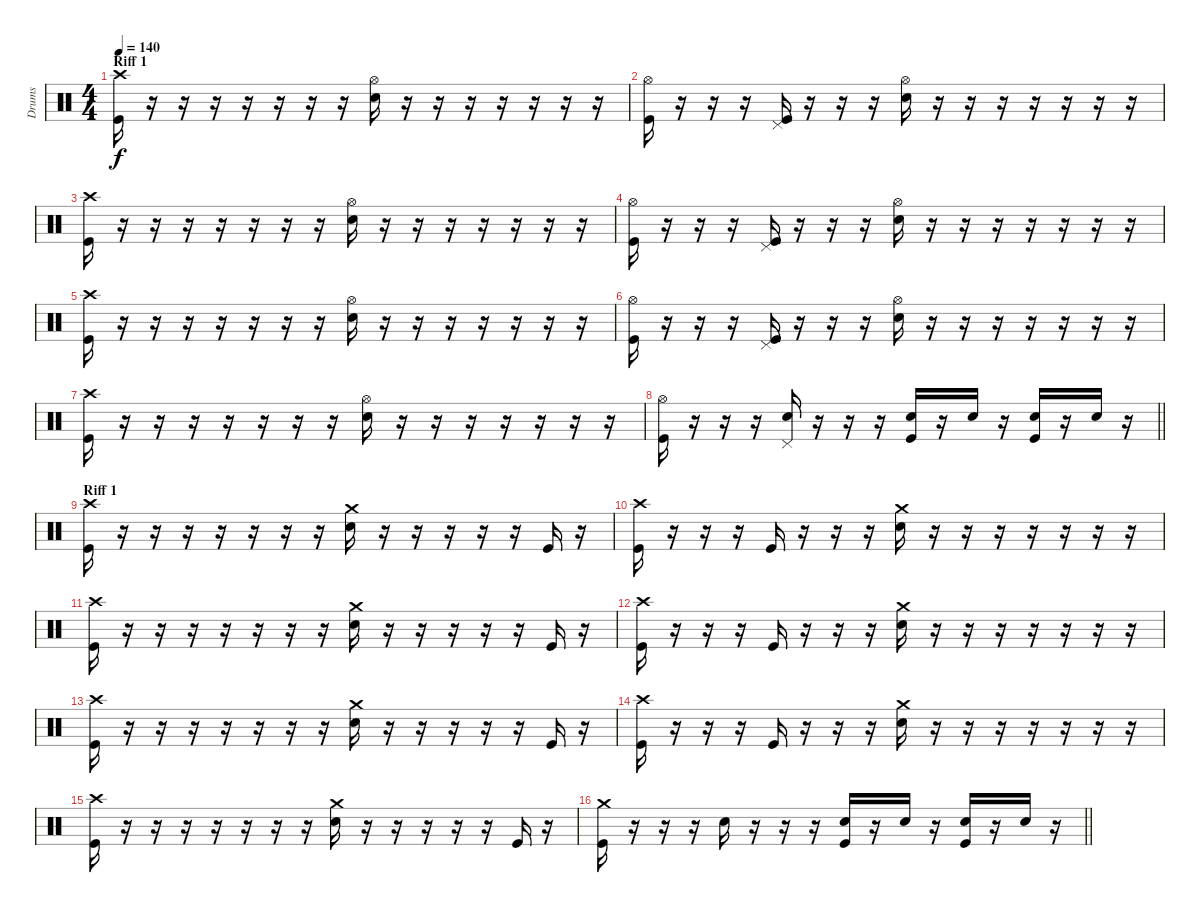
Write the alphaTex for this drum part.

\track ("Drums" "Drums") {instrument percussion}
\staff {score}
\articulation defaults
\ts (4 4)
\section ("" "Riff 1")
\tempo 140
\clef neutral
\ks c
("Crash high (hit)" "Kick (hit)").16{dy f} r.16 r.16 r.16 r.16 r.16 r.16 r.16 ("Hi-Hat (open)" "Electric Snare (hit)").16 r.16 r.16 r.16 r.16 r.16 r.16 r.16 |
("Hi-Hat (open)" "Kick (hit)").16 r.16 r.16 r.16 ("Pedal Hi-Hat (hit)" "Kick (hit)").16 r.16 r.16 r.16 ("Hi-Hat (open)" "Electric Snare (hit)").16 r.16 r.16 r.16 r.16 r.16 r.16 r.16 |
("Crash high (hit)" "Kick (hit)").16 r.16 r.16 r.16 r.16 r.16 r.16 r.16 ("Hi-Hat (open)" "Electric Snare (hit)").16 r.16 r.16 r.16 r.16 r.16 r.16 r.16 |
("Hi-Hat (open)" "Kick (hit)").16 r.16 r.16 r.16 ("Pedal Hi-Hat (hit)" "Kick (hit)").16 r.16 r.16 r.16 ("Hi-Hat (open)" "Electric Snare (hit)").16 r.16 r.16 r.16 r.16 r.16 r.16 r.16 |
("Crash high (hit)" "Kick (hit)").16 r.16 r.16 r.16 r.16 r.16 r.16 r.16 ("Hi-Hat (open)" "Electric Snare (hit)").16 r.16 r.16 r.16 r.16 r.16 r.16 r.16 |
("Hi-Hat (open)" "Kick (hit)").16 r.16 r.16 r.16 ("Pedal Hi-Hat (hit)" "Kick (hit)").16 r.16 r.16 r.16 ("Hi-Hat (open)" "Electric Snare (hit)").16 r.16 r.16 r.16 r.16 r.16 r.16 r.16 |
("Crash high (hit)" "Kick (hit)").16 r.16 r.16 r.16 r.16 r.16 r.16 r.16 ("Hi-Hat (open)" "Electric Snare (hit)").16 r.16 r.16 r.16 r.16 r.16 r.16 r.16 |
\barLineRight lightlight
("Hi-Hat (open)" "Kick (hit)").16 r.16 r.16 r.16 ("Pedal Hi-Hat (hit)" "Electric Snare (hit)").16 r.16 r.16 r.16 ("Electric Snare (hit)" "Kick (hit)").16 r.16 "Electric Snare (hit)".16 r.16 ("Electric Snare (hit)" "Kick (hit)").16 r.16 "Electric Snare (hit)".16 r.16 |
\section ("" "Riff 1")
("Crash high (hit)" "Kick (hit)").16 r.16 r.16 r.16 r.16 r.16 r.16 r.16 ("Crash medium (hit)" "Electric Snare (hit)").16 r.16 r.16 r.16 r.16 r.16 "Kick (hit)".16 r.16 |
("Crash high (hit)" "Kick (hit)").16 r.16 r.16 r.16 "Kick (hit)".16 r.16 r.16 r.16 ("Crash medium (hit)" "Electric Snare (hit)").16 r.16 r.16 r.16 r.16 r.16 r.16 r.16 |
("Crash high (hit)" "Kick (hit)").16 r.16 r.16 r.16 r.16 r.16 r.16 r.16 ("Crash medium (hit)" "Electric Snare (hit)").16 r.16 r.16 r.16 r.16 r.16 "Kick (hit)".16 r.16 |
("Crash high (hit)" "Kick (hit)").16 r.16 r.16 r.16 "Kick (hit)".16 r.16 r.16 r.16 ("Crash medium (hit)" "Electric Snare (hit)").16 r.16 r.16 r.16 r.16 r.16 r.16 r.16 |
("Crash high (hit)" "Kick (hit)").16 r.16 r.16 r.16 r.16 r.16 r.16 r.16 ("Crash medium (hit)" "Electric Snare (hit)").16 r.16 r.16 r.16 r.16 r.16 "Kick (hit)".16 r.16 |
("Crash high (hit)" "Kick (hit)").16 r.16 r.16 r.16 "Kick (hit)".16 r.16 r.16 r.16 ("Crash medium (hit)" "Electric Snare (hit)").16 r.16 r.16 r.16 r.16 r.16 r.16 r.16 |
("Crash high (hit)" "Kick (hit)").16 r.16 r.16 r.16 r.16 r.16 r.16 r.16 ("Crash medium (hit)" "Electric Snare (hit)").16 r.16 r.16 r.16 r.16 r.16 "Kick (hit)".16 r.16 |
\barLineRight lightlight
("Crash medium (hit)" "Kick (hit)").16 r.16 r.16 r.16 "Electric Snare (hit)".16 r.16 r.16 r.16 ("Electric Snare (hit)" "Kick (hit)").16 r.16 "Electric Snare (hit)".16 r.16 ("Electric Snare (hit)" "Kick (hit)").16 r.16 "Electric Snare (hit)".16 r.16
